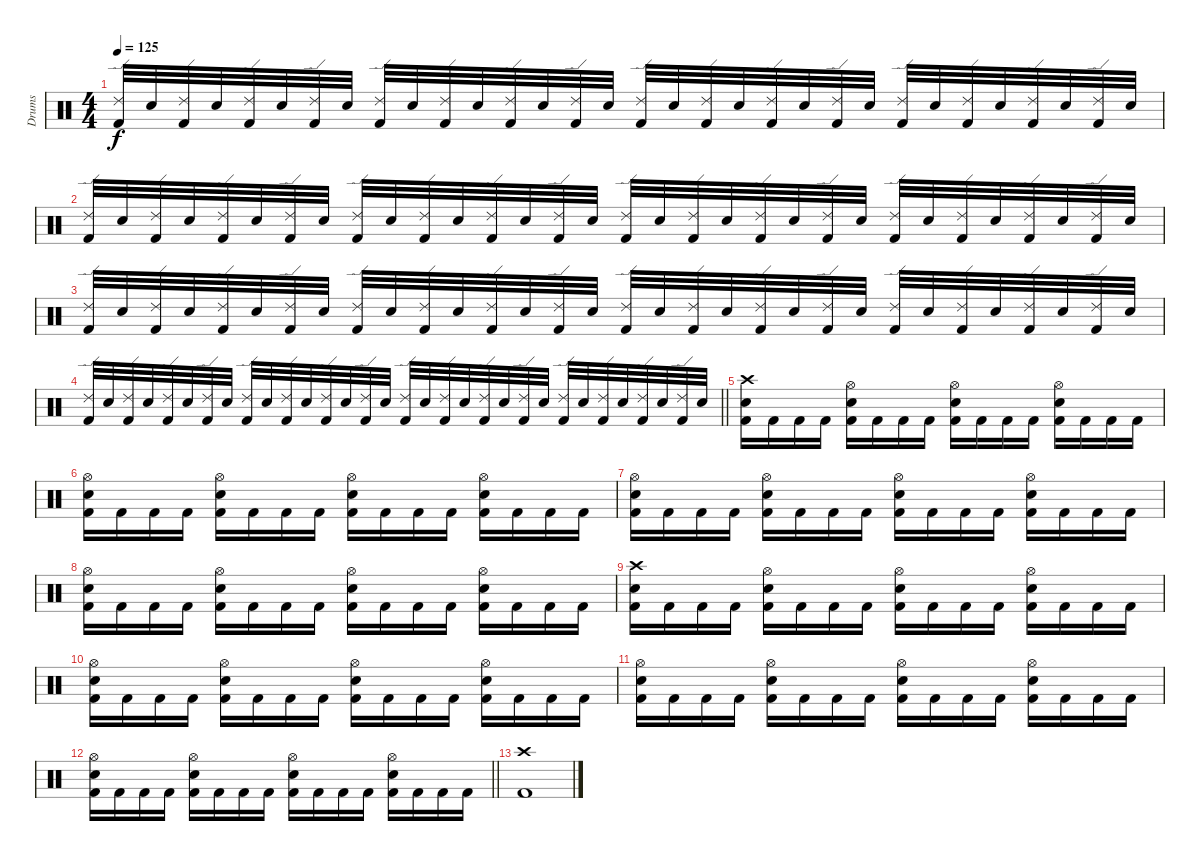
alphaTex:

\track ("Drums" "Drums") {instrument percussion}
\staff {score}
\articulation defaults
\ts (4 4)
\tempo 125
\clef neutral
\ks c
("Ride (edge) 2" "Kick (hit) 2").32{dy f} "Electric Snare (hit)".32 ("Ride (edge) 2" "Kick (hit) 2").32 "Electric Snare (hit)".32 ("Ride (edge) 2" "Kick (hit) 2").32 "Electric Snare (hit)".32 ("Ride (edge) 2" "Kick (hit) 2").32 "Electric Snare (hit)".32 ("Ride (edge) 2" "Kick (hit) 2").32 "Electric Snare (hit)".32 ("Ride (edge) 2" "Kick (hit) 2").32 "Electric Snare (hit)".32 ("Ride (edge) 2" "Kick (hit) 2").32 "Electric Snare (hit)".32 ("Ride (edge) 2" "Kick (hit) 2").32 "Electric Snare (hit)".32 ("Ride (edge) 2" "Kick (hit) 2").32 "Electric Snare (hit)".32 ("Ride (edge) 2" "Kick (hit) 2").32 "Electric Snare (hit)".32 ("Ride (edge) 2" "Kick (hit) 2").32 "Electric Snare (hit)".32 ("Ride (edge) 2" "Kick (hit) 2").32 "Electric Snare (hit)".32 ("Ride (edge) 2" "Kick (hit) 2").32 "Electric Snare (hit)".32 ("Ride (edge) 2" "Kick (hit) 2").32 "Electric Snare (hit)".32 ("Ride (edge) 2" "Kick (hit) 2").32 "Electric Snare (hit)".32 ("Ride (edge) 2" "Kick (hit) 2").32 "Electric Snare (hit)".32 |
("Ride (edge) 2" "Kick (hit) 2").32 "Electric Snare (hit)".32 ("Ride (edge) 2" "Kick (hit) 2").32 "Electric Snare (hit)".32 ("Ride (edge) 2" "Kick (hit) 2").32 "Electric Snare (hit)".32 ("Ride (edge) 2" "Kick (hit) 2").32 "Electric Snare (hit)".32 ("Ride (edge) 2" "Kick (hit) 2").32 "Electric Snare (hit)".32 ("Ride (edge) 2" "Kick (hit) 2").32 "Electric Snare (hit)".32 ("Ride (edge) 2" "Kick (hit) 2").32 "Electric Snare (hit)".32 ("Ride (edge) 2" "Kick (hit) 2").32 "Electric Snare (hit)".32 ("Ride (edge) 2" "Kick (hit) 2").32 "Electric Snare (hit)".32 ("Ride (edge) 2" "Kick (hit) 2").32 "Electric Snare (hit)".32 ("Ride (edge) 2" "Kick (hit) 2").32 "Electric Snare (hit)".32 ("Ride (edge) 2" "Kick (hit) 2").32 "Electric Snare (hit)".32 ("Ride (edge) 2" "Kick (hit) 2").32 "Electric Snare (hit)".32 ("Ride (edge) 2" "Kick (hit) 2").32 "Electric Snare (hit)".32 ("Ride (edge) 2" "Kick (hit) 2").32 "Electric Snare (hit)".32 ("Ride (edge) 2" "Kick (hit) 2").32 "Electric Snare (hit)".32 |
("Ride (edge) 2" "Kick (hit) 2").32 "Electric Snare (hit)".32 ("Ride (edge) 2" "Kick (hit) 2").32 "Electric Snare (hit)".32 ("Ride (edge) 2" "Kick (hit) 2").32 "Electric Snare (hit)".32 ("Ride (edge) 2" "Kick (hit) 2").32 "Electric Snare (hit)".32 ("Ride (edge) 2" "Kick (hit) 2").32 "Electric Snare (hit)".32 ("Ride (edge) 2" "Kick (hit) 2").32 "Electric Snare (hit)".32 ("Ride (edge) 2" "Kick (hit) 2").32 "Electric Snare (hit)".32 ("Ride (edge) 2" "Kick (hit) 2").32 "Electric Snare (hit)".32 ("Ride (edge) 2" "Kick (hit) 2").32 "Electric Snare (hit)".32 ("Ride (edge) 2" "Kick (hit) 2").32 "Electric Snare (hit)".32 ("Ride (edge) 2" "Kick (hit) 2").32 "Electric Snare (hit)".32 ("Ride (edge) 2" "Kick (hit) 2").32 "Electric Snare (hit)".32 ("Ride (edge) 2" "Kick (hit) 2").32 "Electric Snare (hit)".32 ("Ride (edge) 2" "Kick (hit) 2").32 "Electric Snare (hit)".32 ("Ride (edge) 2" "Kick (hit) 2").32 "Electric Snare (hit)".32 ("Ride (edge) 2" "Kick (hit) 2").32 "Electric Snare (hit)".32 |
\barLineRight lightlight
("Ride (edge) 2" "Kick (hit) 2").32 "Electric Snare (hit)".32 ("Ride (edge) 2" "Kick (hit) 2").32 "Electric Snare (hit)".32 ("Ride (edge) 2" "Kick (hit) 2").32 "Electric Snare (hit)".32 ("Ride (edge) 2" "Kick (hit) 2").32 "Electric Snare (hit)".32 ("Ride (edge) 2" "Kick (hit) 2").32 "Electric Snare (hit)".32 ("Ride (edge) 2" "Kick (hit) 2").32 "Electric Snare (hit)".32 ("Ride (edge) 2" "Kick (hit) 2").32 "Electric Snare (hit)".32 ("Ride (edge) 2" "Kick (hit) 2").32 "Electric Snare (hit)".32 ("Ride (edge) 2" "Kick (hit) 2").32 "Electric Snare (hit)".32 ("Ride (edge) 2" "Kick (hit) 2").32 "Electric Snare (hit)".32 ("Ride (edge) 2" "Kick (hit) 2").32 "Electric Snare (hit)".32 ("Ride (edge) 2" "Kick (hit) 2").32 "Electric Snare (hit)".32 ("Ride (edge) 2" "Kick (hit) 2").32 "Electric Snare (hit)".32 ("Ride (edge) 2" "Kick (hit) 2").32 "Electric Snare (hit)".32 ("Ride (edge) 2" "Kick (hit) 2").32 "Electric Snare (hit)".32 ("Ride (edge) 2" "Kick (hit) 2").32 "Electric Snare (hit)".32 |
("Crash high (hit)" "Electric Snare (hit)" "Kick (hit) 2").16 "Kick (hit) 2".16 "Kick (hit) 2".16 "Kick (hit) 2".16 ("Hi-Hat (open)" "Electric Snare (hit)" "Kick (hit) 2").16 "Kick (hit) 2".16 "Kick (hit) 2".16 "Kick (hit) 2".16 ("Hi-Hat (open)" "Electric Snare (hit)" "Kick (hit) 2").16 "Kick (hit) 2".16 "Kick (hit) 2".16 "Kick (hit) 2".16 ("Hi-Hat (open)" "Electric Snare (hit)" "Kick (hit) 2").16 "Kick (hit) 2".16 "Kick (hit) 2".16 "Kick (hit) 2".16 |
("Hi-Hat (open)" "Electric Snare (hit)" "Kick (hit) 2").16 "Kick (hit) 2".16 "Kick (hit) 2".16 "Kick (hit) 2".16 ("Hi-Hat (open)" "Electric Snare (hit)" "Kick (hit) 2").16 "Kick (hit) 2".16 "Kick (hit) 2".16 "Kick (hit) 2".16 ("Hi-Hat (open)" "Electric Snare (hit)" "Kick (hit) 2").16 "Kick (hit) 2".16 "Kick (hit) 2".16 "Kick (hit) 2".16 ("Hi-Hat (open)" "Electric Snare (hit)" "Kick (hit) 2").16 "Kick (hit) 2".16 "Kick (hit) 2".16 "Kick (hit) 2".16 |
("Hi-Hat (open)" "Electric Snare (hit)" "Kick (hit) 2").16 "Kick (hit) 2".16 "Kick (hit) 2".16 "Kick (hit) 2".16 ("Hi-Hat (open)" "Electric Snare (hit)" "Kick (hit) 2").16 "Kick (hit) 2".16 "Kick (hit) 2".16 "Kick (hit) 2".16 ("Hi-Hat (open)" "Electric Snare (hit)" "Kick (hit) 2").16 "Kick (hit) 2".16 "Kick (hit) 2".16 "Kick (hit) 2".16 ("Hi-Hat (open)" "Electric Snare (hit)" "Kick (hit) 2").16 "Kick (hit) 2".16 "Kick (hit) 2".16 "Kick (hit) 2".16 |
("Hi-Hat (open)" "Electric Snare (hit)" "Kick (hit) 2").16 "Kick (hit) 2".16 "Kick (hit) 2".16 "Kick (hit) 2".16 ("Hi-Hat (open)" "Electric Snare (hit)" "Kick (hit) 2").16 "Kick (hit) 2".16 "Kick (hit) 2".16 "Kick (hit) 2".16 ("Hi-Hat (open)" "Electric Snare (hit)" "Kick (hit) 2").16 "Kick (hit) 2".16 "Kick (hit) 2".16 "Kick (hit) 2".16 ("Hi-Hat (open)" "Electric Snare (hit)" "Kick (hit) 2").16 "Kick (hit) 2".16 "Kick (hit) 2".16 "Kick (hit) 2".16 |
("Crash high (hit)" "Electric Snare (hit)" "Kick (hit) 2").16 "Kick (hit) 2".16 "Kick (hit) 2".16 "Kick (hit) 2".16 ("Hi-Hat (open)" "Electric Snare (hit)" "Kick (hit) 2").16 "Kick (hit) 2".16 "Kick (hit) 2".16 "Kick (hit) 2".16 ("Hi-Hat (open)" "Electric Snare (hit)" "Kick (hit) 2").16 "Kick (hit) 2".16 "Kick (hit) 2".16 "Kick (hit) 2".16 ("Hi-Hat (open)" "Electric Snare (hit)" "Kick (hit) 2").16 "Kick (hit) 2".16 "Kick (hit) 2".16 "Kick (hit) 2".16 |
("Hi-Hat (open)" "Electric Snare (hit)" "Kick (hit) 2").16 "Kick (hit) 2".16 "Kick (hit) 2".16 "Kick (hit) 2".16 ("Hi-Hat (open)" "Electric Snare (hit)" "Kick (hit) 2").16 "Kick (hit) 2".16 "Kick (hit) 2".16 "Kick (hit) 2".16 ("Hi-Hat (open)" "Electric Snare (hit)" "Kick (hit) 2").16 "Kick (hit) 2".16 "Kick (hit) 2".16 "Kick (hit) 2".16 ("Hi-Hat (open)" "Electric Snare (hit)" "Kick (hit) 2").16 "Kick (hit) 2".16 "Kick (hit) 2".16 "Kick (hit) 2".16 |
("Hi-Hat (open)" "Electric Snare (hit)" "Kick (hit) 2").16 "Kick (hit) 2".16 "Kick (hit) 2".16 "Kick (hit) 2".16 ("Hi-Hat (open)" "Electric Snare (hit)" "Kick (hit) 2").16 "Kick (hit) 2".16 "Kick (hit) 2".16 "Kick (hit) 2".16 ("Hi-Hat (open)" "Electric Snare (hit)" "Kick (hit) 2").16 "Kick (hit) 2".16 "Kick (hit) 2".16 "Kick (hit) 2".16 ("Hi-Hat (open)" "Electric Snare (hit)" "Kick (hit) 2").16 "Kick (hit) 2".16 "Kick (hit) 2".16 "Kick (hit) 2".16 |
\barLineRight lightlight
("Hi-Hat (open)" "Electric Snare (hit)" "Kick (hit) 2").16 "Kick (hit) 2".16 "Kick (hit) 2".16 "Kick (hit) 2".16 ("Hi-Hat (open)" "Electric Snare (hit)" "Kick (hit) 2").16 "Kick (hit) 2".16 "Kick (hit) 2".16 "Kick (hit) 2".16 ("Hi-Hat (open)" "Electric Snare (hit)" "Kick (hit) 2").16 "Kick (hit) 2".16 "Kick (hit) 2".16 "Kick (hit) 2".16 ("Hi-Hat (open)" "Electric Snare (hit)" "Kick (hit) 2").16 "Kick (hit) 2".16 "Kick (hit) 2".16 "Kick (hit) 2".16 |
("Crash high (hit)" "Kick (hit) 2").1
